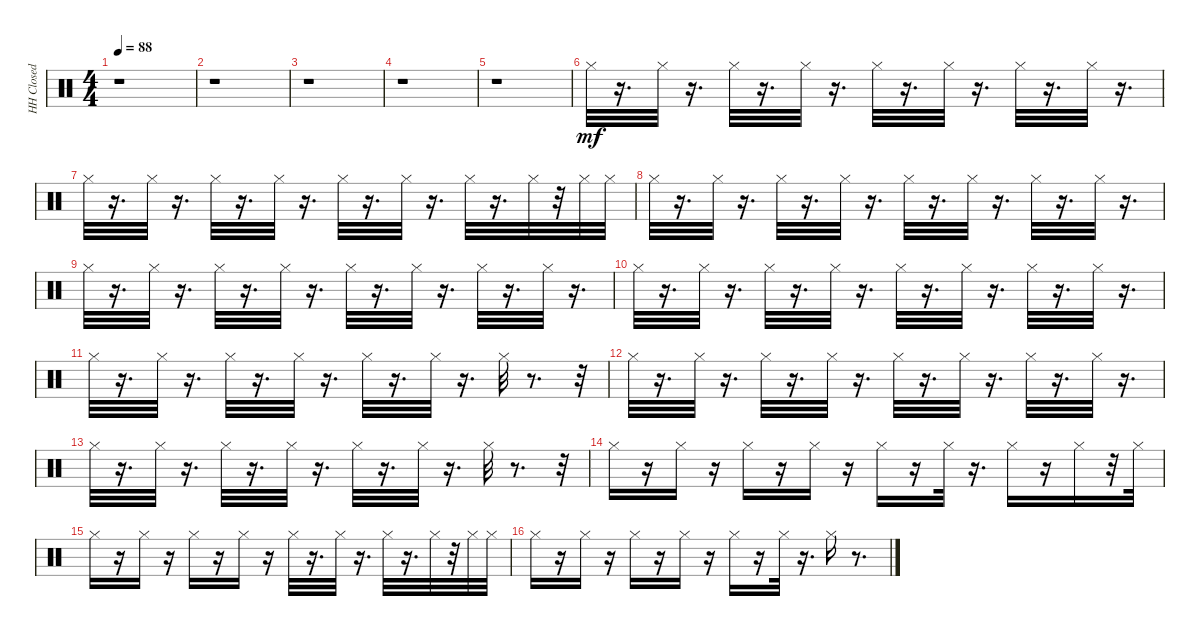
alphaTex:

\track ("HH Closed" "HH Closed") {instrument percussion}
\staff {score}
\articulation defaults
\ts (4 4)
\tempo 88
\clef neutral
\ks c
r.1{dy mf} |
r.1 |
r.1 |
r.1 |
r.1 |
"Hi-Hat (closed)".32 r.16{d} "Hi-Hat (closed)".32 r.16{d} "Hi-Hat (closed)".32 r.16{d} "Hi-Hat (closed)".32 r.16{d} "Hi-Hat (closed)".32 r.16{d} "Hi-Hat (closed)".32 r.16{d} "Hi-Hat (closed)".32 r.16{d} "Hi-Hat (closed)".32 r.16{d} |
"Hi-Hat (closed)".32 r.16{d} "Hi-Hat (closed)".32 r.16{d} "Hi-Hat (closed)".32 r.16{d} "Hi-Hat (closed)".32 r.16{d} "Hi-Hat (closed)".32 r.16{d} "Hi-Hat (closed)".32 r.16{d} "Hi-Hat (closed)".32 r.16{d} "Hi-Hat (closed)".32 r.32 "Hi-Hat (closed)".32 "Hi-Hat (closed)".32 |
"Hi-Hat (closed)".32 r.16{d} "Hi-Hat (closed)".32 r.16{d} "Hi-Hat (closed)".32 r.16{d} "Hi-Hat (closed)".32 r.16{d} "Hi-Hat (closed)".32 r.16{d} "Hi-Hat (closed)".32 r.16{d} "Hi-Hat (closed)".32 r.16{d} "Hi-Hat (closed)".32 r.16{d} |
"Hi-Hat (closed)".32 r.16{d} "Hi-Hat (closed)".32 r.16{d} "Hi-Hat (closed)".32 r.16{d} "Hi-Hat (closed)".32 r.16{d} "Hi-Hat (closed)".32 r.16{d} "Hi-Hat (closed)".32 r.16{d} "Hi-Hat (closed)".32 r.16{d} "Hi-Hat (closed)".32 r.16{d} |
"Hi-Hat (closed)".32 r.16{d} "Hi-Hat (closed)".32 r.16{d} "Hi-Hat (closed)".32 r.16{d} "Hi-Hat (closed)".32 r.16{d} "Hi-Hat (closed)".32 r.16{d} "Hi-Hat (closed)".32 r.16{d} "Hi-Hat (closed)".32 r.16{d} "Hi-Hat (closed)".32 r.16{d} |
"Hi-Hat (closed)".32 r.16{d} "Hi-Hat (closed)".32 r.16{d} "Hi-Hat (closed)".32 r.16{d} "Hi-Hat (closed)".32 r.16{d} "Hi-Hat (closed)".32 r.16{d} "Hi-Hat (closed)".32 r.16{d} "Hi-Hat (closed)".32 r.8{d} r.32 |
"Hi-Hat (closed)".32 r.16{d} "Hi-Hat (closed)".32 r.16{d} "Hi-Hat (closed)".32 r.16{d} "Hi-Hat (closed)".32 r.16{d} "Hi-Hat (closed)".32 r.16{d} "Hi-Hat (closed)".32 r.16{d} "Hi-Hat (closed)".32 r.16{d} "Hi-Hat (closed)".32 r.16{d} |
"Hi-Hat (closed)".32 r.16{d} "Hi-Hat (closed)".32 r.16{d} "Hi-Hat (closed)".32 r.16{d} "Hi-Hat (closed)".32 r.16{d} "Hi-Hat (closed)".32 r.16{d} "Hi-Hat (closed)".32 r.16{d} "Hi-Hat (closed)".32 r.8{d} r.32 |
"Hi-Hat (closed)".16 r.16 "Hi-Hat (closed)".16 r.16 "Hi-Hat (closed)".16 r.16 "Hi-Hat (closed)".16 r.16 "Hi-Hat (closed)".16 r.16 "Hi-Hat (closed)".32 r.16{d} "Hi-Hat (closed)".16 r.16 "Hi-Hat (closed)".16 r.32 "Hi-Hat (closed)".32 |
"Hi-Hat (closed)".16 r.16 "Hi-Hat (closed)".16 r.16 "Hi-Hat (closed)".16 r.16 "Hi-Hat (closed)".16 r.16 "Hi-Hat (closed)".32 r.16{d} "Hi-Hat (closed)".32 r.16{d} "Hi-Hat (closed)".32 r.16{d} "Hi-Hat (closed)".32 r.32 "Hi-Hat (closed)".32 "Hi-Hat (closed)".32 |
"Hi-Hat (closed)".16 r.16 "Hi-Hat (closed)".16 r.16 "Hi-Hat (closed)".16 r.16 "Hi-Hat (closed)".16 r.16 "Hi-Hat (closed)".16 r.16 "Hi-Hat (closed)".32 r.16{d} "Hi-Hat (closed)".16 r.8{d}
